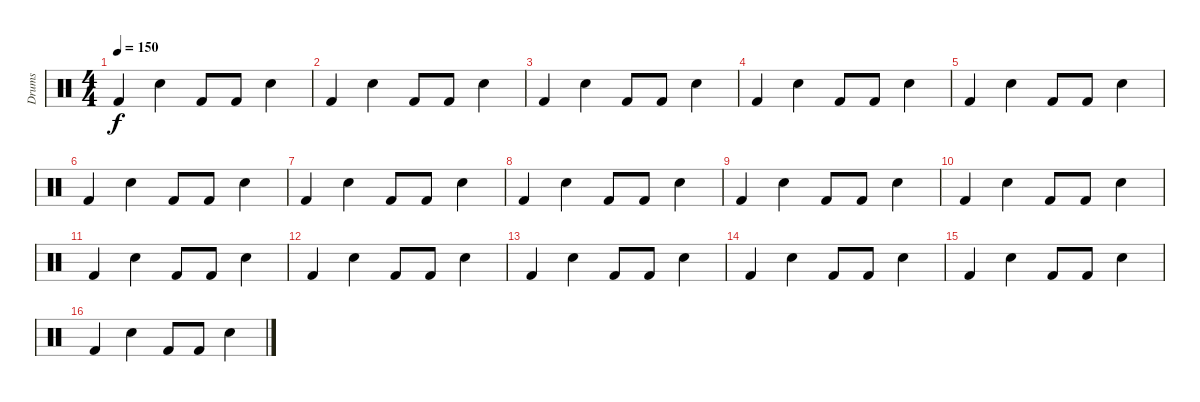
\track ("Drums" "Drums") {instrument percussion}
\staff {score}
\articulation defaults
\ts (4 4)
\tempo 150
\clef neutral
\ks c "Kick (hit) 2".4{dy f} "Snare (hit) 2".4 "Kick (hit) 2".8 "Kick (hit) 2".8 "Snare (hit) 2".4
|
"Kick (hit) 2".4 "Snare (hit) 2".4 "Kick (hit) 2".8 "Kick (hit) 2".8 "Snare (hit) 2".4 |
"Kick (hit) 2".4 "Snare (hit) 2".4 "Kick (hit) 2".8 "Kick (hit) 2".8 "Snare (hit) 2".4 |
"Kick (hit) 2".4 "Snare (hit) 2".4 "Kick (hit) 2".8 "Kick (hit) 2".8 "Snare (hit) 2".4 |
"Kick (hit) 2".4 "Snare (hit) 2".4 "Kick (hit) 2".8 "Kick (hit) 2".8 "Snare (hit) 2".4 |
"Kick (hit) 2".4 "Snare (hit) 2".4 "Kick (hit) 2".8 "Kick (hit) 2".8 "Snare (hit) 2".4 |
"Kick (hit) 2".4 "Snare (hit) 2".4 "Kick (hit) 2".8 "Kick (hit) 2".8 "Snare (hit) 2".4 |
"Kick (hit) 2".4 "Snare (hit) 2".4 "Kick (hit) 2".8 "Kick (hit) 2".8 "Snare (hit) 2".4 |
"Kick (hit) 2".4 "Snare (hit) 2".4 "Kick (hit) 2".8 "Kick (hit) 2".8 "Snare (hit) 2".4 |
"Kick (hit) 2".4 "Snare (hit) 2".4 "Kick (hit) 2".8 "Kick (hit) 2".8 "Snare (hit) 2".4 |
"Kick (hit) 2".4 "Snare (hit) 2".4 "Kick (hit) 2".8 "Kick (hit) 2".8 "Snare (hit) 2".4 |
"Kick (hit) 2".4 "Snare (hit) 2".4 "Kick (hit) 2".8 "Kick (hit) 2".8 "Snare (hit) 2".4 |
"Kick (hit) 2".4 "Snare (hit) 2".4 "Kick (hit) 2".8 "Kick (hit) 2".8 "Snare (hit) 2".4 |
"Kick (hit) 2".4 "Snare (hit) 2".4 "Kick (hit) 2".8 "Kick (hit) 2".8 "Snare (hit) 2".4 |
"Kick (hit) 2".4 "Snare (hit) 2".4 "Kick (hit) 2".8 "Kick (hit) 2".8 "Snare (hit) 2".4 |
"Kick (hit) 2".4 "Snare (hit) 2".4 "Kick (hit) 2".8 "Kick (hit) 2".8 "Snare (hit) 2".4
